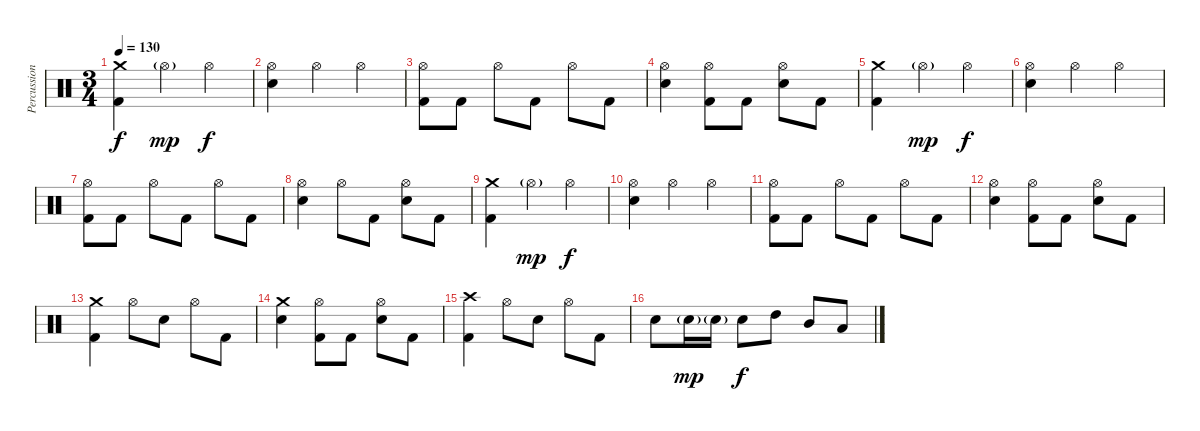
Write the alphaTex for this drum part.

\track ("Percussion" "Percussion") {instrument percussion}
\staff {score}
\articulation defaults
\ts (3 4)
\tempo 130
\clef neutral
\ks c
("Crash medium (hit)" "Kick (hit) 2").4{dy f volume 14} "Hi-Hat (open)"{g}.4{dy mp} "Hi-Hat (open)".4{dy f} |
("Hi-Hat (open)" "Electric Snare (hit)").4 "Hi-Hat (open)".4 "Hi-Hat (open)".4 |
("Hi-Hat (open)" "Kick (hit) 2").8 "Kick (hit) 2".8 "Hi-Hat (open)".8 "Kick (hit) 2".8 "Hi-Hat (open)".8 "Kick (hit) 2".8 |
("Hi-Hat (open)" "Electric Snare (hit)").4 ("Hi-Hat (open)" "Kick (hit) 2").8 "Kick (hit) 2".8 ("Hi-Hat (open)" "Electric Snare (hit)").8 "Kick (hit) 2".8 |
("Crash medium (hit)" "Kick (hit) 2").4 "Hi-Hat (open)"{g}.4{dy mp} "Hi-Hat (open)".4{dy f} |
("Hi-Hat (open)" "Electric Snare (hit)").4 "Hi-Hat (open)".4 "Hi-Hat (open)".4 |
("Hi-Hat (open)" "Kick (hit) 2").8 "Kick (hit) 2".8 "Hi-Hat (open)".8 "Kick (hit) 2".8 "Hi-Hat (open)".8 "Kick (hit) 2".8 |
("Hi-Hat (open)" "Electric Snare (hit)").4 "Hi-Hat (open)".8 "Kick (hit) 2".8 ("Hi-Hat (open)" "Electric Snare (hit)").8 "Kick (hit) 2".8 |
("Crash medium (hit)" "Kick (hit) 2").4 "Hi-Hat (open)"{g}.4{dy mp} "Hi-Hat (open)".4{dy f} |
("Hi-Hat (open)" "Electric Snare (hit)").4 "Hi-Hat (open)".4 "Hi-Hat (open)".4 |
("Hi-Hat (open)" "Kick (hit) 2").8 "Kick (hit) 2".8 "Hi-Hat (open)".8 "Kick (hit) 2".8 "Hi-Hat (open)".8 "Kick (hit) 2".8 |
("Hi-Hat (open)" "Electric Snare (hit)").4 ("Hi-Hat (open)" "Kick (hit) 2").8 "Kick (hit) 2".8 ("Hi-Hat (open)" "Electric Snare (hit)").8 "Kick (hit) 2".8 |
("Crash medium (hit)" "Kick (hit) 2").4 "Hi-Hat (open)".8 "Electric Snare (hit)".8 "Hi-Hat (open)".8 "Kick (hit) 2".8 |
("Crash medium (hit)" "Electric Snare (hit)").4 ("Hi-Hat (open)" "Kick (hit) 2").8 "Kick (hit) 2".8 ("Hi-Hat (open)" "Electric Snare (hit)").8 "Kick (hit) 2".8 |
("Crash high (hit)" "Kick (hit) 2").4 "Hi-Hat (open)".8 "Electric Snare (hit)".8 "Hi-Hat (open)".8 "Kick (hit) 2".8 |
"Electric Snare (hit)".8 "Electric Snare (hit)"{g}.16{dy mp} "Electric Snare (hit)"{g}.16 "Electric Snare (hit)".8{dy f} "High Tom (hit)".8 "Mid Tom (hit)".8 "Low Tom (hit)".8
